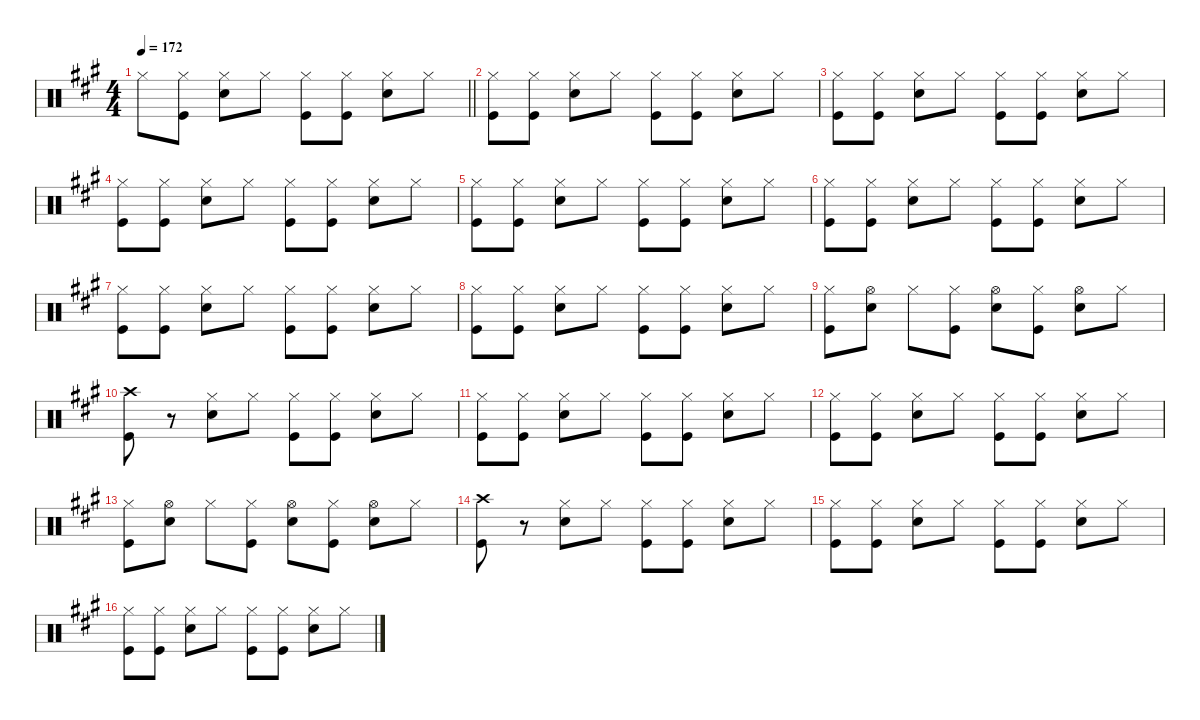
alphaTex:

\defaultSystemsLayout 4
\hideDynamics
\bracketExtendMode nobrackets
\singleTrackTrackNamePolicy hidden
\multiTrackTrackNamePolicy hidden
\firstSystemTrackNameMode fullname
\firstSystemTrackNameOrientation horizontal
\otherSystemsTrackNameOrientation horizontal
\track ("Percussion" "drm.") {instrument percussion}
\staff {score}
\articulation defaults
\ts (4 4)
\tempo 172
\clef neutral
\barLineRight lightlight
\ks a "Hi-Hat (closed)"{acc forcenatural}.8{dy f beam Down}
("Hi-Hat (closed)"{acc forcenatural} "Kick (hit)"{acc forcenatural}).8{beam Down} ("Hi-Hat (closed)"{acc forcenatural} "Snare (hit) 2"{acc forcenatural}).8{beam Down} "Hi-Hat (closed)"{acc forcenatural}.8{beam Down} ("Hi-Hat (closed)"{acc forcenatural} "Kick (hit)"{acc forcenatural}).8{beam Down} ("Hi-Hat (closed)"{acc forcenatural} "Kick (hit)"{acc forcenatural}).8{beam Down} ("Hi-Hat (closed)"{acc forcenatural} "Snare (hit) 2"{acc forcenatural}).8{beam Down} "Hi-Hat (closed)"{acc forcenatural}.8{beam Down} |
("Hi-Hat (closed)"{acc forcenatural} "Kick (hit)"{acc forcenatural}).8{beam Down} ("Hi-Hat (closed)"{acc forcenatural} "Kick (hit)"{acc forcenatural}).8{beam Down} ("Hi-Hat (closed)"{acc forcenatural} "Snare (hit) 2"{acc forcenatural}).8{beam Down} "Hi-Hat (closed)"{acc forcenatural}.8{beam Down} ("Hi-Hat (closed)"{acc forcenatural} "Kick (hit)"{acc forcenatural}).8{beam Down} ("Hi-Hat (closed)"{acc forcenatural} "Kick (hit)"{acc forcenatural}).8{beam Down} ("Hi-Hat (closed)"{acc forcenatural} "Snare (hit) 2"{acc forcenatural}).8{beam Down} "Hi-Hat (closed)"{acc forcenatural}.8{beam Down} |
("Hi-Hat (closed)"{acc forcenatural} "Kick (hit)"{acc forcenatural}).8{beam Down} ("Hi-Hat (closed)"{acc forcenatural} "Kick (hit)"{acc forcenatural}).8{beam Down} ("Hi-Hat (closed)"{acc forcenatural} "Snare (hit) 2"{acc forcenatural}).8{beam Down} "Hi-Hat (closed)"{acc forcenatural}.8{beam Down} ("Hi-Hat (closed)"{acc forcenatural} "Kick (hit)"{acc forcenatural}).8{beam Down} ("Hi-Hat (closed)"{acc forcenatural} "Kick (hit)"{acc forcenatural}).8{beam Down} ("Hi-Hat (closed)"{acc forcenatural} "Snare (hit) 2"{acc forcenatural}).8{beam Down} "Hi-Hat (closed)"{acc forcenatural}.8{beam Down} |
("Hi-Hat (closed)"{acc forcenatural} "Kick (hit)"{acc forcenatural}).8{beam Down} ("Hi-Hat (closed)"{acc forcenatural} "Kick (hit)"{acc forcenatural}).8{beam Down} ("Hi-Hat (closed)"{acc forcenatural} "Snare (hit) 2"{acc forcenatural}).8{beam Down} "Hi-Hat (closed)"{acc forcenatural}.8{beam Down} ("Hi-Hat (closed)"{acc forcenatural} "Kick (hit)"{acc forcenatural}).8{beam Down} ("Hi-Hat (closed)"{acc forcenatural} "Kick (hit)"{acc forcenatural}).8{beam Down} ("Hi-Hat (closed)"{acc forcenatural} "Snare (hit) 2"{acc forcenatural}).8{beam Down} "Hi-Hat (closed)"{acc forcenatural}.8{beam Down} |
("Hi-Hat (closed)"{acc forcenatural} "Kick (hit)"{acc forcenatural}).8{beam Down} ("Hi-Hat (closed)"{acc forcenatural} "Kick (hit)"{acc forcenatural}).8{beam Down} ("Hi-Hat (closed)"{acc forcenatural} "Snare (hit) 2"{acc forcenatural}).8{beam Down} "Hi-Hat (closed)"{acc forcenatural}.8{beam Down} ("Hi-Hat (closed)"{acc forcenatural} "Kick (hit)"{acc forcenatural}).8{beam Down} ("Hi-Hat (closed)"{acc forcenatural} "Kick (hit)"{acc forcenatural}).8{beam Down} ("Hi-Hat (closed)"{acc forcenatural} "Snare (hit) 2"{acc forcenatural}).8{beam Down} "Hi-Hat (closed)"{acc forcenatural}.8{beam Down} |
("Hi-Hat (closed)"{acc forcenatural} "Kick (hit)"{acc forcenatural}).8{beam Down} ("Hi-Hat (closed)"{acc forcenatural} "Kick (hit)"{acc forcenatural}).8{beam Down} ("Hi-Hat (closed)"{acc forcenatural} "Snare (hit) 2"{acc forcenatural}).8{beam Down} "Hi-Hat (closed)"{acc forcenatural}.8{beam Down} ("Hi-Hat (closed)"{acc forcenatural} "Kick (hit)"{acc forcenatural}).8{beam Down} ("Hi-Hat (closed)"{acc forcenatural} "Kick (hit)"{acc forcenatural}).8{beam Down} ("Hi-Hat (closed)"{acc forcenatural} "Snare (hit) 2"{acc forcenatural}).8{beam Down} "Hi-Hat (closed)"{acc forcenatural}.8{beam Down} |
("Hi-Hat (closed)"{acc forcenatural} "Kick (hit)"{acc forcenatural}).8{beam Down} ("Hi-Hat (closed)"{acc forcenatural} "Kick (hit)"{acc forcenatural}).8{beam Down} ("Hi-Hat (closed)"{acc forcenatural} "Snare (hit) 2"{acc forcenatural}).8{beam Down} "Hi-Hat (closed)"{acc forcenatural}.8{beam Down} ("Hi-Hat (closed)"{acc forcenatural} "Kick (hit)"{acc forcenatural}).8{beam Down} ("Hi-Hat (closed)"{acc forcenatural} "Kick (hit)"{acc forcenatural}).8{beam Down} ("Hi-Hat (closed)"{acc forcenatural} "Snare (hit) 2"{acc forcenatural}).8{beam Down} "Hi-Hat (closed)"{acc forcenatural}.8{beam Down} |
("Hi-Hat (closed)"{acc forcenatural} "Kick (hit)"{acc forcenatural}).8{beam Down} ("Hi-Hat (closed)"{acc forcenatural} "Kick (hit)"{acc forcenatural}).8{beam Down} ("Hi-Hat (closed)"{acc forcenatural} "Snare (hit) 2"{acc forcenatural}).8{beam Down} "Hi-Hat (closed)"{acc forcenatural}.8{beam Down} ("Hi-Hat (closed)"{acc forcenatural} "Kick (hit)"{acc forcenatural}).8{beam Down} ("Hi-Hat (closed)"{acc forcenatural} "Kick (hit)"{acc forcenatural}).8{beam Down} ("Hi-Hat (closed)"{acc forcenatural} "Snare (hit) 2"{acc forcenatural}).8{beam Down} "Hi-Hat (closed)"{acc forcenatural}.8{beam Down} |
("Hi-Hat (closed)"{acc forcenatural} "Kick (hit)"{acc forcenatural}).8{beam Down} ("Hi-Hat (open)"{acc forcenatural} "Snare (hit) 2"{acc forcenatural}).8{beam Down} "Hi-Hat (closed)"{acc forcenatural}.8{beam Down} ("Hi-Hat (closed)"{acc forcenatural} "Kick (hit)"{acc forcenatural}).8{beam Down} ("Hi-Hat (open)"{acc forcenatural} "Snare (hit) 2"{acc forcenatural}).8{beam Down} ("Hi-Hat (closed)"{acc forcenatural} "Kick (hit)"{acc forcenatural}).8{beam Down} ("Hi-Hat (open)"{acc forcenatural} "Snare (hit) 2"{acc forcenatural}).8{beam Down} "Hi-Hat (closed)"{acc forcenatural}.8{beam Down} |
("Crash high (hit)"{acc forcenatural} "Kick (hit)"{acc forcenatural}).8{beam Down} r.8{beam Down} ("Hi-Hat (closed)"{acc forcenatural} "Snare (hit) 2"{acc forcenatural}).8{beam Down} "Hi-Hat (closed)"{acc forcenatural}.8{beam Down} ("Hi-Hat (closed)"{acc forcenatural} "Kick (hit)"{acc forcenatural}).8{beam Down} ("Hi-Hat (closed)"{acc forcenatural} "Kick (hit)"{acc forcenatural}).8{beam Down} ("Hi-Hat (closed)"{acc forcenatural} "Snare (hit) 2"{acc forcenatural}).8{beam Down} "Hi-Hat (closed)"{acc forcenatural}.8{beam Down} |
("Hi-Hat (closed)"{acc forcenatural} "Kick (hit)"{acc forcenatural}).8{beam Down} ("Hi-Hat (closed)"{acc forcenatural} "Kick (hit)"{acc forcenatural}).8{beam Down} ("Hi-Hat (closed)"{acc forcenatural} "Snare (hit) 2"{acc forcenatural}).8{beam Down} "Hi-Hat (closed)"{acc forcenatural}.8{beam Down} ("Hi-Hat (closed)"{acc forcenatural} "Kick (hit)"{acc forcenatural}).8{beam Down} ("Hi-Hat (closed)"{acc forcenatural} "Kick (hit)"{acc forcenatural}).8{beam Down} ("Hi-Hat (closed)"{acc forcenatural} "Snare (hit) 2"{acc forcenatural}).8{beam Down} "Hi-Hat (closed)"{acc forcenatural}.8{beam Down} |
("Hi-Hat (closed)"{acc forcenatural} "Kick (hit)"{acc forcenatural}).8{beam Down} ("Hi-Hat (closed)"{acc forcenatural} "Kick (hit)"{acc forcenatural}).8{beam Down} ("Hi-Hat (closed)"{acc forcenatural} "Snare (hit) 2"{acc forcenatural}).8{beam Down} "Hi-Hat (closed)"{acc forcenatural}.8{beam Down} ("Hi-Hat (closed)"{acc forcenatural} "Kick (hit)"{acc forcenatural}).8{beam Down} ("Hi-Hat (closed)"{acc forcenatural} "Kick (hit)"{acc forcenatural}).8{beam Down} ("Hi-Hat (closed)"{acc forcenatural} "Snare (hit) 2"{acc forcenatural}).8{beam Down} "Hi-Hat (closed)"{acc forcenatural}.8{beam Down} |
("Hi-Hat (closed)"{acc forcenatural} "Kick (hit)"{acc forcenatural}).8{beam Down} ("Hi-Hat (open)"{acc forcenatural} "Snare (hit) 2"{acc forcenatural}).8{beam Down} "Hi-Hat (closed)"{acc forcenatural}.8{beam Down} ("Hi-Hat (closed)"{acc forcenatural} "Kick (hit)"{acc forcenatural}).8{beam Down} ("Hi-Hat (open)"{acc forcenatural} "Snare (hit) 2"{acc forcenatural}).8{beam Down} ("Hi-Hat (closed)"{acc forcenatural} "Kick (hit)"{acc forcenatural}).8{beam Down} ("Hi-Hat (open)"{acc forcenatural} "Snare (hit) 2"{acc forcenatural}).8{beam Down} "Hi-Hat (closed)"{acc forcenatural}.8{beam Down} |
("Crash high (hit)"{acc forcenatural} "Kick (hit)"{acc forcenatural}).8{beam Down} r.8{beam Down} ("Hi-Hat (closed)"{acc forcenatural} "Snare (hit) 2"{acc forcenatural}).8{beam Down} "Hi-Hat (closed)"{acc forcenatural}.8{beam Down} ("Hi-Hat (closed)"{acc forcenatural} "Kick (hit)"{acc forcenatural}).8{beam Down} ("Hi-Hat (closed)"{acc forcenatural} "Kick (hit)"{acc forcenatural}).8{beam Down} ("Hi-Hat (closed)"{acc forcenatural} "Snare (hit) 2"{acc forcenatural}).8{beam Down} "Hi-Hat (closed)"{acc forcenatural}.8{beam Down} |
("Hi-Hat (closed)"{acc forcenatural} "Kick (hit)"{acc forcenatural}).8{beam Down} ("Hi-Hat (closed)"{acc forcenatural} "Kick (hit)"{acc forcenatural}).8{beam Down} ("Hi-Hat (closed)"{acc forcenatural} "Snare (hit) 2"{acc forcenatural}).8{beam Down} "Hi-Hat (closed)"{acc forcenatural}.8{beam Down} ("Hi-Hat (closed)"{acc forcenatural} "Kick (hit)"{acc forcenatural}).8{beam Down} ("Hi-Hat (closed)"{acc forcenatural} "Kick (hit)"{acc forcenatural}).8{beam Down} ("Hi-Hat (closed)"{acc forcenatural} "Snare (hit) 2"{acc forcenatural}).8{beam Down} "Hi-Hat (closed)"{acc forcenatural}.8{beam Down} |
("Hi-Hat (closed)"{acc forcenatural} "Kick (hit)"{acc forcenatural}).8{beam Down} ("Hi-Hat (closed)"{acc forcenatural} "Kick (hit)"{acc forcenatural}).8{beam Down} ("Hi-Hat (closed)"{acc forcenatural} "Snare (hit) 2"{acc forcenatural}).8{beam Down} "Hi-Hat (closed)"{acc forcenatural}.8{beam Down} ("Hi-Hat (closed)"{acc forcenatural} "Kick (hit)"{acc forcenatural}).8{beam Down} ("Hi-Hat (closed)"{acc forcenatural} "Kick (hit)"{acc forcenatural}).8{beam Down} ("Hi-Hat (closed)"{acc forcenatural} "Snare (hit) 2"{acc forcenatural}).8{beam Down} "Hi-Hat (closed)"{acc forcenatural}.8{beam Down}
